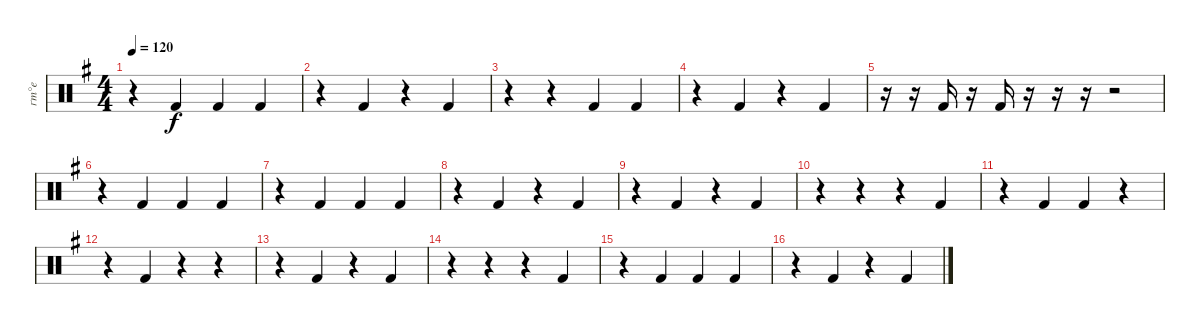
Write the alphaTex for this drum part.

\track ("ґт°е" "ґт°е") {instrument percussion}
\staff {score}
\articulation defaults
\ts (4 4)
\tempo 120
\clef neutral
\ks g
r.4{dy f} "Kick (hit) 2".4 "Kick (hit) 2".4 "Kick (hit) 2".4 |
r.4 "Kick (hit) 2".4 r.4 "Kick (hit) 2".4 |
r.4 r.4 "Kick (hit) 2".4 "Kick (hit) 2".4 |
r.4 "Kick (hit) 2".4 r.4 "Kick (hit) 2".4 |
r.16 r.16 "Kick (hit) 2".16 r.16 "Kick (hit) 2".16 r.16 r.16 r.16 r.2 |
r.4 "Kick (hit) 2".4 "Kick (hit) 2".4 "Kick (hit) 2".4 |
r.4 "Kick (hit) 2".4 "Kick (hit) 2".4 "Kick (hit) 2".4 |
r.4 "Kick (hit) 2".4 r.4 "Kick (hit) 2".4 |
r.4 "Kick (hit) 2".4 r.4 "Kick (hit) 2".4 |
r.4 r.4 r.4 "Kick (hit) 2".4 |
r.4 "Kick (hit) 2".4 "Kick (hit) 2".4 r.4 |
r.4 "Kick (hit) 2".4 r.4 r.4 |
r.4 "Kick (hit) 2".4 r.4 "Kick (hit) 2".4 |
r.4 r.4 r.4 "Kick (hit) 2".4 |
r.4 "Kick (hit) 2".4 "Kick (hit) 2".4 "Kick (hit) 2".4 |
r.4 "Kick (hit) 2".4 r.4 "Kick (hit) 2".4
